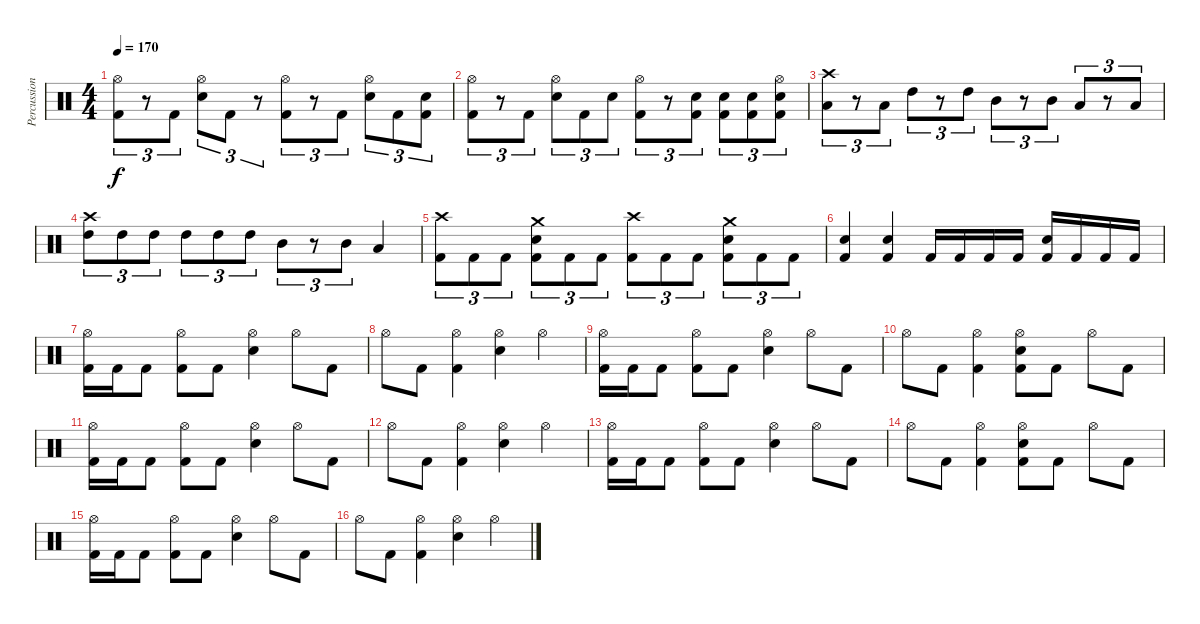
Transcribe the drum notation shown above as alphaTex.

\track ("Percussioni" "Percussion") {instrument percussion}
\staff {score}
\articulation defaults
\ts (4 4)
\tempo 170
\clef neutral
\ks c
("Hi-Hat (open)" "Kick (hit) 2").8{tu (3 2) dy f} r.8{tu (3 2)} "Kick (hit) 2".8{tu (3 2)} ("Hi-Hat (open)" "Snare (hit) 2").8{tu (3 2)} "Kick (hit) 2".8{tu (3 2)} r.8{tu (3 2)} ("Hi-Hat (open)" "Kick (hit) 2").8{tu (3 2)} r.8{tu (3 2)} "Kick (hit) 2".8{tu (3 2)} ("Hi-Hat (open)" "Snare (hit) 2").8{tu (3 2)} "Kick (hit) 2".8{tu (3 2)} ("Snare (hit) 2" "Kick (hit) 2").8{tu (3 2)} |
("Hi-Hat (open)" "Kick (hit) 2").8{tu (3 2)} r.8{tu (3 2)} "Kick (hit) 2".8{tu (3 2)} ("Hi-Hat (open)" "Snare (hit) 2").8{tu (3 2)} "Kick (hit) 2".8{tu (3 2)} "Snare (hit) 2".8{tu (3 2)} ("Hi-Hat (open)" "Kick (hit) 2").8{tu (3 2)} r.8{tu (3 2)} ("Snare (hit) 2" "Kick (hit) 2").8{tu (3 2)} ("Snare (hit) 2" "Kick (hit) 2").8{tu (3 2)} ("Snare (hit) 2" "Kick (hit) 2").8{tu (3 2)} ("Hi-Hat (open)" "Snare (hit) 2" "Kick (hit) 2").8{tu (3 2)} |
("Crash high (hit)" "Low Tom (hit)").8{tu (3 2)} r.8{tu (3 2)} "Low Tom (hit)".8{tu (3 2)} "High Tom (hit)".8{tu (3 2)} r.8{tu (3 2)} "High Tom (hit)".8{tu (3 2)} "Mid Tom (hit)".8{tu (3 2)} r.8{tu (3 2)} "Mid Tom (hit)".8{tu (3 2)} "Low Tom (hit)".8{tu (3 2)} r.8{tu (3 2)} "Low Tom (hit)".8{tu (3 2)} |
("Crash high (hit)" "High Tom (hit)").8{tu (3 2)} "High Tom (hit)".8{tu (3 2)} "High Tom (hit)".8{tu (3 2)} "High Tom (hit)".8{tu (3 2)} "High Tom (hit)".8{tu (3 2)} "High Tom (hit)".8{tu (3 2)} "Mid Tom (hit)".8{tu (3 2)} r.8{tu (3 2)} "Mid Tom (hit)".8{tu (3 2)} "Low Tom (hit)".4 |
("Crash high (hit)" "Kick (hit) 2").8{tu (3 2)} "Kick (hit) 2".8{tu (3 2)} "Kick (hit) 2".8{tu (3 2)} ("Crash medium (hit)" "Snare (hit) 2" "Kick (hit) 2").8{tu (3 2)} "Kick (hit) 2".8{tu (3 2)} "Kick (hit) 2".8{tu (3 2)} ("Crash high (hit)" "Kick (hit) 2").8{tu (3 2)} "Kick (hit) 2".8{tu (3 2)} "Kick (hit) 2".8{tu (3 2)} ("Crash medium (hit)" "Snare (hit) 2" "Kick (hit) 2").8{tu (3 2)} "Kick (hit) 2".8{tu (3 2)} "Kick (hit) 2".8{tu (3 2)} |
("Snare (hit) 2" "Kick (hit) 2").4 ("Snare (hit) 2" "Kick (hit) 2").4 "Kick (hit) 2".16 "Kick (hit) 2".16 "Kick (hit) 2".16 "Kick (hit) 2".16 ("Snare (hit) 2" "Kick (hit) 2").16 "Kick (hit) 2".16 "Kick (hit) 2".16 "Kick (hit) 2".16 |
("Hi-Hat (open)" "Kick (hit) 2").16 "Kick (hit) 2".16 "Kick (hit) 2".8 ("Hi-Hat (open)" "Kick (hit) 2").8 "Kick (hit) 2".8 ("Hi-Hat (open)" "Snare (hit) 2").4 "Hi-Hat (open)".8 "Kick (hit) 2".8 |
"Hi-Hat (open)".8 "Kick (hit) 2".8 ("Hi-Hat (open)" "Kick (hit) 2").4 ("Hi-Hat (open)" "Snare (hit) 2").4 "Hi-Hat (open)".4 |
("Hi-Hat (open)" "Kick (hit) 2").16 "Kick (hit) 2".16 "Kick (hit) 2".8 ("Hi-Hat (open)" "Kick (hit) 2").8 "Kick (hit) 2".8 ("Hi-Hat (open)" "Snare (hit) 2").4 "Hi-Hat (open)".8 "Kick (hit) 2".8 |
"Hi-Hat (open)".8 "Kick (hit) 2".8 ("Hi-Hat (open)" "Kick (hit) 2").4 ("Hi-Hat (open)" "Snare (hit) 2" "Kick (hit) 2").8 "Kick (hit) 2".8 "Hi-Hat (open)".8 "Kick (hit) 2".8 |
("Hi-Hat (open)" "Kick (hit) 2").16 "Kick (hit) 2".16 "Kick (hit) 2".8 ("Hi-Hat (open)" "Kick (hit) 2").8 "Kick (hit) 2".8 ("Hi-Hat (open)" "Snare (hit) 2").4 "Hi-Hat (open)".8 "Kick (hit) 2".8 |
"Hi-Hat (open)".8 "Kick (hit) 2".8 ("Hi-Hat (open)" "Kick (hit) 2").4 ("Hi-Hat (open)" "Snare (hit) 2").4 "Hi-Hat (open)".4 |
("Hi-Hat (open)" "Kick (hit) 2").16 "Kick (hit) 2".16 "Kick (hit) 2".8 ("Hi-Hat (open)" "Kick (hit) 2").8 "Kick (hit) 2".8 ("Hi-Hat (open)" "Snare (hit) 2").4 "Hi-Hat (open)".8 "Kick (hit) 2".8 |
"Hi-Hat (open)".8 "Kick (hit) 2".8 ("Hi-Hat (open)" "Kick (hit) 2").4 ("Hi-Hat (open)" "Snare (hit) 2" "Kick (hit) 2").8 "Kick (hit) 2".8 "Hi-Hat (open)".8 "Kick (hit) 2".8 |
("Hi-Hat (open)" "Kick (hit) 2").16 "Kick (hit) 2".16 "Kick (hit) 2".8 ("Hi-Hat (open)" "Kick (hit) 2").8 "Kick (hit) 2".8 ("Hi-Hat (open)" "Snare (hit) 2").4 "Hi-Hat (open)".8 "Kick (hit) 2".8 |
"Hi-Hat (open)".8 "Kick (hit) 2".8 ("Hi-Hat (open)" "Kick (hit) 2").4 ("Hi-Hat (open)" "Snare (hit) 2").4 "Hi-Hat (open)".4
